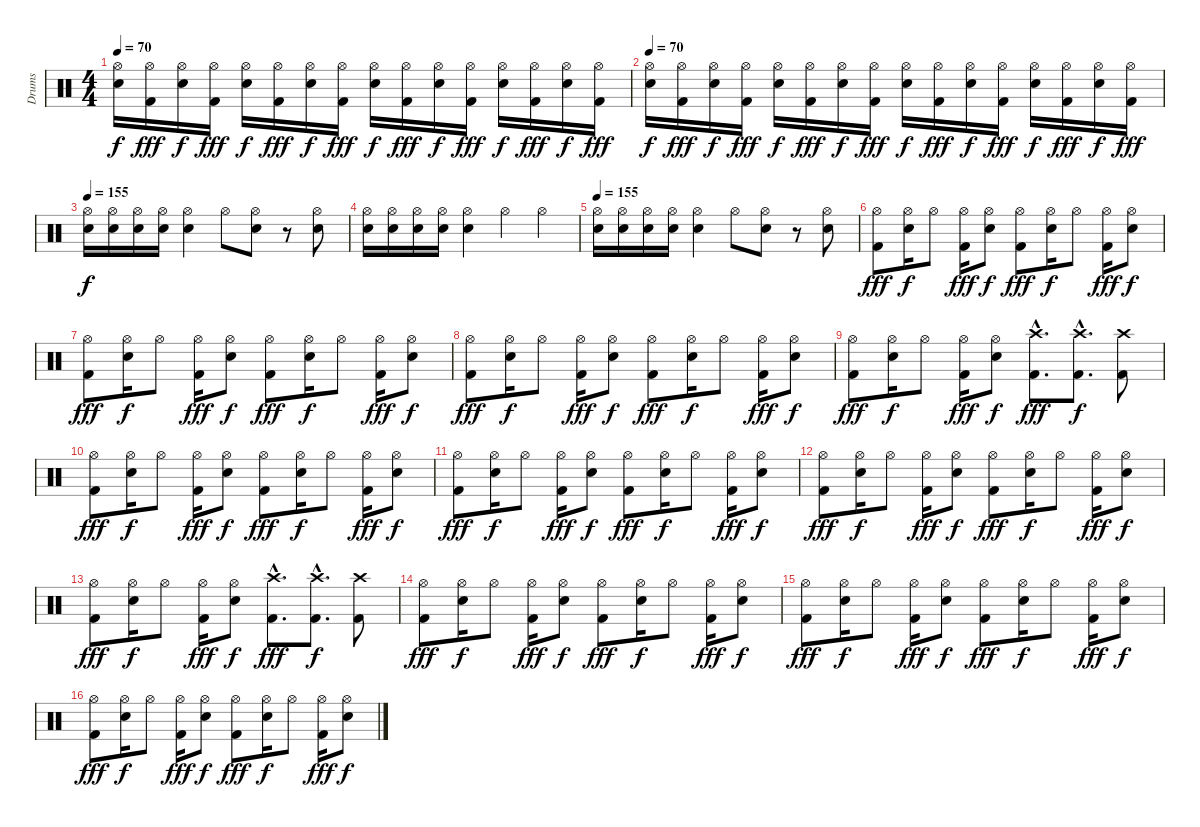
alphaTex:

\track ("Drums" "Drums") {instrument percussion}
\staff {score}
\articulation defaults
\ts (4 4)
\tempo 70
\clef neutral
\ks c
("Electric Snare (hit)" "Hi-Hat (open)").16{dy f} ("Kick (hit) 2" "Hi-Hat (open)").16{dy fff} ("Electric Snare (hit)" "Hi-Hat (open)").16{dy f} ("Kick (hit) 2" "Hi-Hat (open)").16{dy fff} ("Electric Snare (hit)" "Hi-Hat (open)").16{dy f} ("Kick (hit) 2" "Hi-Hat (open)").16{dy fff} ("Electric Snare (hit)" "Hi-Hat (open)").16{dy f} ("Kick (hit) 2" "Hi-Hat (open)").16{dy fff} ("Electric Snare (hit)" "Hi-Hat (open)").16{dy f} ("Kick (hit) 2" "Hi-Hat (open)").16{dy fff} ("Electric Snare (hit)" "Hi-Hat (open)").16{dy f} ("Kick (hit) 2" "Hi-Hat (open)").16{dy fff} ("Electric Snare (hit)" "Hi-Hat (open)").16{dy f} ("Kick (hit) 2" "Hi-Hat (open)").16{dy fff} ("Electric Snare (hit)" "Hi-Hat (open)").16{dy f} ("Kick (hit) 2" "Hi-Hat (open)").16{dy fff} |
\tempo 70
("Electric Snare (hit)" "Hi-Hat (open)").16{dy f} ("Kick (hit) 2" "Hi-Hat (open)").16{dy fff} ("Electric Snare (hit)" "Hi-Hat (open)").16{dy f} ("Kick (hit) 2" "Hi-Hat (open)").16{dy fff} ("Electric Snare (hit)" "Hi-Hat (open)").16{dy f} ("Kick (hit) 2" "Hi-Hat (open)").16{dy fff} ("Electric Snare (hit)" "Hi-Hat (open)").16{dy f} ("Kick (hit) 2" "Hi-Hat (open)").16{dy fff} ("Electric Snare (hit)" "Hi-Hat (open)").16{dy f} ("Kick (hit) 2" "Hi-Hat (open)").16{dy fff} ("Electric Snare (hit)" "Hi-Hat (open)").16{dy f} ("Kick (hit) 2" "Hi-Hat (open)").16{dy fff} ("Electric Snare (hit)" "Hi-Hat (open)").16{dy f} ("Kick (hit) 2" "Hi-Hat (open)").16{dy fff} ("Electric Snare (hit)" "Hi-Hat (open)").16{dy f} ("Kick (hit) 2" "Hi-Hat (open)").16{dy fff} |
\tempo 155
("Electric Snare (hit)" "Hi-Hat (open)").16{dy f} ("Electric Snare (hit)" "Hi-Hat (open)").16 ("Electric Snare (hit)" "Hi-Hat (open)").16 ("Electric Snare (hit)" "Hi-Hat (open)").16 ("Electric Snare (hit)" "Hi-Hat (open)").4 "Hi-Hat (open)".8 ("Electric Snare (hit)" "Hi-Hat (open)").8 r.8 ("Electric Snare (hit)" "Hi-Hat (open)").8 |
("Electric Snare (hit)" "Hi-Hat (open)").16 ("Electric Snare (hit)" "Hi-Hat (open)").16 ("Electric Snare (hit)" "Hi-Hat (open)").16 ("Electric Snare (hit)" "Hi-Hat (open)").16 ("Electric Snare (hit)" "Hi-Hat (open)").4 "Hi-Hat (open)".4 "Hi-Hat (open)".4 |
\tempo 155
("Electric Snare (hit)" "Hi-Hat (open)").16 ("Electric Snare (hit)" "Hi-Hat (open)").16 ("Electric Snare (hit)" "Hi-Hat (open)").16 ("Electric Snare (hit)" "Hi-Hat (open)").16 ("Electric Snare (hit)" "Hi-Hat (open)").4 "Hi-Hat (open)".8 ("Electric Snare (hit)" "Hi-Hat (open)").8 r.8 ("Electric Snare (hit)" "Hi-Hat (open)").8 |
("Kick (hit) 2" "Hi-Hat (open)").8{dy fff} ("Electric Snare (hit)" "Hi-Hat (open)").16{dy f} "Hi-Hat (open)".8 ("Kick (hit) 2" "Hi-Hat (open)").16{dy fff} ("Electric Snare (hit)" "Hi-Hat (open)").8{dy f} ("Kick (hit) 2" "Hi-Hat (open)").8{dy fff} ("Electric Snare (hit)" "Hi-Hat (open)").16{dy f} "Hi-Hat (open)".8 ("Kick (hit) 2" "Hi-Hat (open)").16{dy fff} ("Electric Snare (hit)" "Hi-Hat (open)").8{dy f} |
("Kick (hit) 2" "Hi-Hat (open)").8{dy fff} ("Electric Snare (hit)" "Hi-Hat (open)").16{dy f} "Hi-Hat (open)".8 ("Kick (hit) 2" "Hi-Hat (open)").16{dy fff} ("Electric Snare (hit)" "Hi-Hat (open)").8{dy f} ("Kick (hit) 2" "Hi-Hat (open)").8{dy fff} ("Electric Snare (hit)" "Hi-Hat (open)").16{dy f} "Hi-Hat (open)".8 ("Kick (hit) 2" "Hi-Hat (open)").16{dy fff} ("Electric Snare (hit)" "Hi-Hat (open)").8{dy f} |
("Kick (hit) 2" "Hi-Hat (open)").8{dy fff} ("Electric Snare (hit)" "Hi-Hat (open)").16{dy f} "Hi-Hat (open)".8 ("Kick (hit) 2" "Hi-Hat (open)").16{dy fff} ("Electric Snare (hit)" "Hi-Hat (open)").8{dy f} ("Kick (hit) 2" "Hi-Hat (open)").8{dy fff} ("Electric Snare (hit)" "Hi-Hat (open)").16{dy f} "Hi-Hat (open)".8 ("Kick (hit) 2" "Hi-Hat (open)").16{dy fff} ("Electric Snare (hit)" "Hi-Hat (open)").8{dy f} |
("Kick (hit) 2" "Hi-Hat (open)").8{dy fff} ("Electric Snare (hit)" "Hi-Hat (open)").16{dy f} "Hi-Hat (open)".8 ("Kick (hit) 2" "Hi-Hat (open)").16{dy fff} ("Electric Snare (hit)" "Hi-Hat (open)").8{dy f} ("Kick (hit) 2"{hac} "Crash high (hit)"{hac}).8{d dy fff} ("Kick (hit) 2"{hac} "Crash high (hit)"{hac}).8{d dy f} ("Kick (hit) 2" "Crash high (hit)").8 |
("Kick (hit) 2" "Hi-Hat (open)").8{dy fff} ("Electric Snare (hit)" "Hi-Hat (open)").16{dy f} "Hi-Hat (open)".8 ("Kick (hit) 2" "Hi-Hat (open)").16{dy fff} ("Electric Snare (hit)" "Hi-Hat (open)").8{dy f} ("Kick (hit) 2" "Hi-Hat (open)").8{dy fff} ("Electric Snare (hit)" "Hi-Hat (open)").16{dy f} "Hi-Hat (open)".8 ("Kick (hit) 2" "Hi-Hat (open)").16{dy fff} ("Electric Snare (hit)" "Hi-Hat (open)").8{dy f} |
("Kick (hit) 2" "Hi-Hat (open)").8{dy fff} ("Electric Snare (hit)" "Hi-Hat (open)").16{dy f} "Hi-Hat (open)".8 ("Kick (hit) 2" "Hi-Hat (open)").16{dy fff} ("Electric Snare (hit)" "Hi-Hat (open)").8{dy f} ("Kick (hit) 2" "Hi-Hat (open)").8{dy fff} ("Electric Snare (hit)" "Hi-Hat (open)").16{dy f} "Hi-Hat (open)".8 ("Kick (hit) 2" "Hi-Hat (open)").16{dy fff} ("Electric Snare (hit)" "Hi-Hat (open)").8{dy f} |
("Kick (hit) 2" "Hi-Hat (open)").8{dy fff} ("Electric Snare (hit)" "Hi-Hat (open)").16{dy f} "Hi-Hat (open)".8 ("Kick (hit) 2" "Hi-Hat (open)").16{dy fff} ("Electric Snare (hit)" "Hi-Hat (open)").8{dy f} ("Kick (hit) 2" "Hi-Hat (open)").8{dy fff} ("Electric Snare (hit)" "Hi-Hat (open)").16{dy f} "Hi-Hat (open)".8 ("Kick (hit) 2" "Hi-Hat (open)").16{dy fff} ("Electric Snare (hit)" "Hi-Hat (open)").8{dy f} |
("Kick (hit) 2" "Hi-Hat (open)").8{dy fff} ("Electric Snare (hit)" "Hi-Hat (open)").16{dy f} "Hi-Hat (open)".8 ("Kick (hit) 2" "Hi-Hat (open)").16{dy fff} ("Electric Snare (hit)" "Hi-Hat (open)").8{dy f} ("Kick (hit) 2"{hac} "Crash high (hit)"{hac}).8{d dy fff} ("Kick (hit) 2"{hac} "Crash high (hit)"{hac}).8{d dy f} ("Kick (hit) 2" "Crash high (hit)").8 |
("Kick (hit) 2" "Hi-Hat (open)").8{dy fff} ("Electric Snare (hit)" "Hi-Hat (open)").16{dy f} "Hi-Hat (open)".8 ("Kick (hit) 2" "Hi-Hat (open)").16{dy fff} ("Electric Snare (hit)" "Hi-Hat (open)").8{dy f} ("Kick (hit) 2" "Hi-Hat (open)").8{dy fff} ("Electric Snare (hit)" "Hi-Hat (open)").16{dy f} "Hi-Hat (open)".8 ("Kick (hit) 2" "Hi-Hat (open)").16{dy fff} ("Electric Snare (hit)" "Hi-Hat (open)").8{dy f} |
("Kick (hit) 2" "Hi-Hat (open)").8{dy fff} ("Electric Snare (hit)" "Hi-Hat (open)").16{dy f} "Hi-Hat (open)".8 ("Kick (hit) 2" "Hi-Hat (open)").16{dy fff} ("Electric Snare (hit)" "Hi-Hat (open)").8{dy f} ("Kick (hit) 2" "Hi-Hat (open)").8{dy fff} ("Electric Snare (hit)" "Hi-Hat (open)").16{dy f} "Hi-Hat (open)".8 ("Kick (hit) 2" "Hi-Hat (open)").16{dy fff} ("Electric Snare (hit)" "Hi-Hat (open)").8{dy f} |
("Kick (hit) 2" "Hi-Hat (open)").8{dy fff} ("Electric Snare (hit)" "Hi-Hat (open)").16{dy f} "Hi-Hat (open)".8 ("Kick (hit) 2" "Hi-Hat (open)").16{dy fff} ("Electric Snare (hit)" "Hi-Hat (open)").8{dy f} ("Kick (hit) 2" "Hi-Hat (open)").8{dy fff} ("Electric Snare (hit)" "Hi-Hat (open)").16{dy f} "Hi-Hat (open)".8 ("Kick (hit) 2" "Hi-Hat (open)").16{dy fff} ("Electric Snare (hit)" "Hi-Hat (open)").8{dy f}
